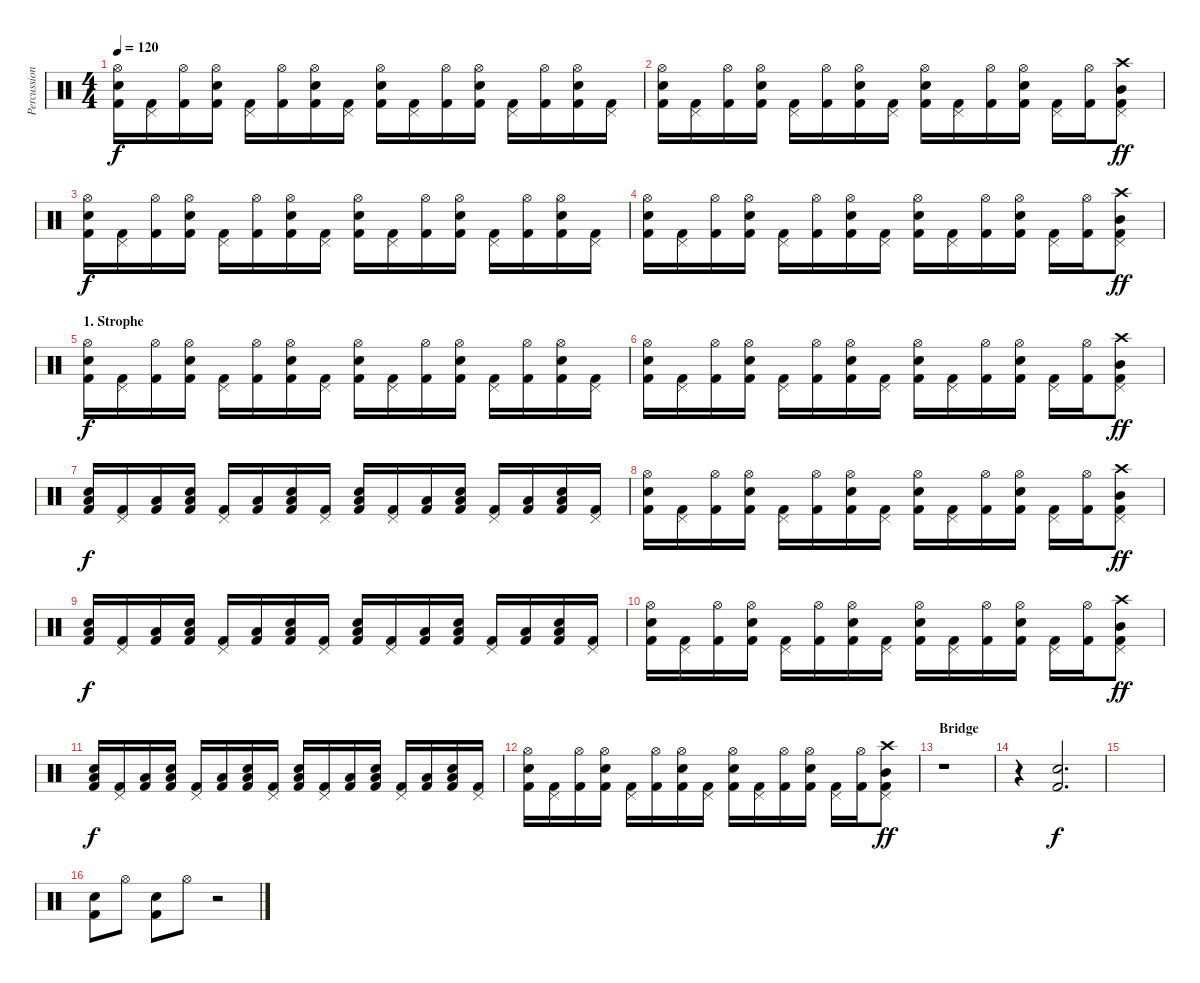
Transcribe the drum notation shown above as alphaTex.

\track ("Percussion" "Percussion") {instrument percussion}
\staff {score}
\articulation defaults
\ts (4 4)
\tempo 120
\clef neutral
\ks c
("Hi-Hat (open)" "Electric Snare (hit)" "Kick (hit) 2").16{dy f} ("Pedal Hi-Hat (hit)" "Kick (hit) 2").16 ("Hi-Hat (open)" "Kick (hit) 2").16 ("Hi-Hat (open)" "Electric Snare (hit)" "Kick (hit) 2").16 ("Pedal Hi-Hat (hit)" "Kick (hit) 2").16 ("Hi-Hat (open)" "Kick (hit) 2").16 ("Hi-Hat (open)" "Electric Snare (hit)" "Kick (hit) 2").16 ("Pedal Hi-Hat (hit)" "Kick (hit) 2").16 ("Hi-Hat (open)" "Electric Snare (hit)" "Kick (hit) 2").16 ("Pedal Hi-Hat (hit)" "Kick (hit) 2").16 ("Hi-Hat (open)" "Kick (hit) 2").16 ("Hi-Hat (open)" "Electric Snare (hit)" "Kick (hit) 2").16 ("Pedal Hi-Hat (hit)" "Kick (hit) 2").16 ("Hi-Hat (open)" "Kick (hit) 2").16 ("Hi-Hat (open)" "Electric Snare (hit)" "Kick (hit) 2").16 ("Pedal Hi-Hat (hit)" "Kick (hit) 2").16 |
("Hi-Hat (open)" "Electric Snare (hit)" "Kick (hit) 2").16 ("Pedal Hi-Hat (hit)" "Kick (hit) 2").16 ("Hi-Hat (open)" "Kick (hit) 2").16 ("Hi-Hat (open)" "Electric Snare (hit)" "Kick (hit) 2").16 ("Pedal Hi-Hat (hit)" "Kick (hit) 2").16 ("Hi-Hat (open)" "Kick (hit) 2").16 ("Hi-Hat (open)" "Electric Snare (hit)" "Kick (hit) 2").16 ("Pedal Hi-Hat (hit)" "Kick (hit) 2").16 ("Hi-Hat (open)" "Electric Snare (hit)" "Kick (hit) 2").16 ("Pedal Hi-Hat (hit)" "Kick (hit) 2").16 ("Hi-Hat (open)" "Kick (hit) 2").16 ("Hi-Hat (open)" "Electric Snare (hit)" "Kick (hit) 2").16 ("Pedal Hi-Hat (hit)" "Kick (hit) 2").16 ("Hi-Hat (open)" "Kick (hit) 2").16 ("Crash high (hit)" "Mid Tom (hit)" "Pedal Hi-Hat (hit)" "Kick (hit) 2").8{dy ff} |
("Hi-Hat (open)" "Electric Snare (hit)" "Kick (hit) 2").16{dy f} ("Pedal Hi-Hat (hit)" "Kick (hit) 2").16 ("Hi-Hat (open)" "Kick (hit) 2").16 ("Hi-Hat (open)" "Electric Snare (hit)" "Kick (hit) 2").16 ("Pedal Hi-Hat (hit)" "Kick (hit) 2").16 ("Hi-Hat (open)" "Kick (hit) 2").16 ("Hi-Hat (open)" "Electric Snare (hit)" "Kick (hit) 2").16 ("Pedal Hi-Hat (hit)" "Kick (hit) 2").16 ("Hi-Hat (open)" "Electric Snare (hit)" "Kick (hit) 2").16 ("Pedal Hi-Hat (hit)" "Kick (hit) 2").16 ("Hi-Hat (open)" "Kick (hit) 2").16 ("Hi-Hat (open)" "Electric Snare (hit)" "Kick (hit) 2").16 ("Pedal Hi-Hat (hit)" "Kick (hit) 2").16 ("Hi-Hat (open)" "Kick (hit) 2").16 ("Hi-Hat (open)" "Electric Snare (hit)" "Kick (hit) 2").16 ("Pedal Hi-Hat (hit)" "Kick (hit) 2").16 |
("Hi-Hat (open)" "Electric Snare (hit)" "Kick (hit) 2").16 ("Pedal Hi-Hat (hit)" "Kick (hit) 2").16 ("Hi-Hat (open)" "Kick (hit) 2").16 ("Hi-Hat (open)" "Electric Snare (hit)" "Kick (hit) 2").16 ("Pedal Hi-Hat (hit)" "Kick (hit) 2").16 ("Hi-Hat (open)" "Kick (hit) 2").16 ("Hi-Hat (open)" "Electric Snare (hit)" "Kick (hit) 2").16 ("Pedal Hi-Hat (hit)" "Kick (hit) 2").16 ("Hi-Hat (open)" "Electric Snare (hit)" "Kick (hit) 2").16 ("Pedal Hi-Hat (hit)" "Kick (hit) 2").16 ("Hi-Hat (open)" "Kick (hit) 2").16 ("Hi-Hat (open)" "Electric Snare (hit)" "Kick (hit) 2").16 ("Pedal Hi-Hat (hit)" "Kick (hit) 2").16 ("Hi-Hat (open)" "Kick (hit) 2").16 ("Crash high (hit)" "Mid Tom (hit)" "Pedal Hi-Hat (hit)" "Kick (hit) 2").8{dy ff} |
\section ("" "1. Strophe")
("Hi-Hat (open)" "Electric Snare (hit)" "Kick (hit) 2").16{dy f} ("Pedal Hi-Hat (hit)" "Kick (hit) 2").16 ("Hi-Hat (open)" "Kick (hit) 2").16 ("Hi-Hat (open)" "Electric Snare (hit)" "Kick (hit) 2").16 ("Pedal Hi-Hat (hit)" "Kick (hit) 2").16 ("Hi-Hat (open)" "Kick (hit) 2").16 ("Hi-Hat (open)" "Electric Snare (hit)" "Kick (hit) 2").16 ("Pedal Hi-Hat (hit)" "Kick (hit) 2").16 ("Hi-Hat (open)" "Electric Snare (hit)" "Kick (hit) 2").16 ("Pedal Hi-Hat (hit)" "Kick (hit) 2").16 ("Hi-Hat (open)" "Kick (hit) 2").16 ("Hi-Hat (open)" "Electric Snare (hit)" "Kick (hit) 2").16 ("Pedal Hi-Hat (hit)" "Kick (hit) 2").16 ("Hi-Hat (open)" "Kick (hit) 2").16 ("Hi-Hat (open)" "Electric Snare (hit)" "Kick (hit) 2").16 ("Pedal Hi-Hat (hit)" "Kick (hit) 2").16 |
("Hi-Hat (open)" "Electric Snare (hit)" "Kick (hit) 2").16 ("Pedal Hi-Hat (hit)" "Kick (hit) 2").16 ("Hi-Hat (open)" "Kick (hit) 2").16 ("Hi-Hat (open)" "Electric Snare (hit)" "Kick (hit) 2").16 ("Pedal Hi-Hat (hit)" "Kick (hit) 2").16 ("Hi-Hat (open)" "Kick (hit) 2").16 ("Hi-Hat (open)" "Electric Snare (hit)" "Kick (hit) 2").16 ("Pedal Hi-Hat (hit)" "Kick (hit) 2").16 ("Hi-Hat (open)" "Electric Snare (hit)" "Kick (hit) 2").16 ("Pedal Hi-Hat (hit)" "Kick (hit) 2").16 ("Hi-Hat (open)" "Kick (hit) 2").16 ("Hi-Hat (open)" "Electric Snare (hit)" "Kick (hit) 2").16 ("Pedal Hi-Hat (hit)" "Kick (hit) 2").16 ("Hi-Hat (open)" "Kick (hit) 2").16 ("Crash high (hit)" "Mid Tom (hit)" "Pedal Hi-Hat (hit)" "Kick (hit) 2").8{dy ff} |
("Low Floor Tom (hit)" "Electric Snare (hit)" "Kick (hit) 2").16{dy f} ("Pedal Hi-Hat (hit)" "Kick (hit) 2").16 ("Low Floor Tom (hit)" "Kick (hit) 2").16 ("Low Floor Tom (hit)" "Electric Snare (hit)" "Kick (hit) 2").16 ("Pedal Hi-Hat (hit)" "Kick (hit) 2").16 ("Low Floor Tom (hit)" "Kick (hit) 2").16 ("Low Floor Tom (hit)" "Electric Snare (hit)" "Kick (hit) 2").16 ("Pedal Hi-Hat (hit)" "Kick (hit) 2").16 ("Low Floor Tom (hit)" "Electric Snare (hit)" "Kick (hit) 2").16 ("Pedal Hi-Hat (hit)" "Kick (hit) 2").16 ("Low Floor Tom (hit)" "Kick (hit) 2").16 ("Low Floor Tom (hit)" "Electric Snare (hit)" "Kick (hit) 2").16 ("Pedal Hi-Hat (hit)" "Kick (hit) 2").16 ("Low Floor Tom (hit)" "Kick (hit) 2").16 ("Low Floor Tom (hit)" "Electric Snare (hit)" "Kick (hit) 2").16 ("Pedal Hi-Hat (hit)" "Kick (hit) 2").16 |
("Hi-Hat (open)" "Electric Snare (hit)" "Kick (hit) 2").16 ("Pedal Hi-Hat (hit)" "Kick (hit) 2").16 ("Hi-Hat (open)" "Kick (hit) 2").16 ("Hi-Hat (open)" "Electric Snare (hit)" "Kick (hit) 2").16 ("Pedal Hi-Hat (hit)" "Kick (hit) 2").16 ("Hi-Hat (open)" "Kick (hit) 2").16 ("Hi-Hat (open)" "Electric Snare (hit)" "Kick (hit) 2").16 ("Pedal Hi-Hat (hit)" "Kick (hit) 2").16 ("Hi-Hat (open)" "Electric Snare (hit)" "Kick (hit) 2").16 ("Pedal Hi-Hat (hit)" "Kick (hit) 2").16 ("Hi-Hat (open)" "Kick (hit) 2").16 ("Hi-Hat (open)" "Electric Snare (hit)" "Kick (hit) 2").16 ("Pedal Hi-Hat (hit)" "Kick (hit) 2").16 ("Hi-Hat (open)" "Kick (hit) 2").16 ("Crash high (hit)" "Mid Tom (hit)" "Pedal Hi-Hat (hit)" "Kick (hit) 2").8{dy ff} |
("Low Floor Tom (hit)" "Electric Snare (hit)" "Kick (hit) 2").16{dy f} ("Pedal Hi-Hat (hit)" "Kick (hit) 2").16 ("Low Floor Tom (hit)" "Kick (hit) 2").16 ("Low Floor Tom (hit)" "Electric Snare (hit)" "Kick (hit) 2").16 ("Pedal Hi-Hat (hit)" "Kick (hit) 2").16 ("Low Floor Tom (hit)" "Kick (hit) 2").16 ("Low Floor Tom (hit)" "Electric Snare (hit)" "Kick (hit) 2").16 ("Pedal Hi-Hat (hit)" "Kick (hit) 2").16 ("Low Floor Tom (hit)" "Electric Snare (hit)" "Kick (hit) 2").16 ("Pedal Hi-Hat (hit)" "Kick (hit) 2").16 ("Low Floor Tom (hit)" "Kick (hit) 2").16 ("Low Floor Tom (hit)" "Electric Snare (hit)" "Kick (hit) 2").16 ("Pedal Hi-Hat (hit)" "Kick (hit) 2").16 ("Low Floor Tom (hit)" "Kick (hit) 2").16 ("Low Floor Tom (hit)" "Electric Snare (hit)" "Kick (hit) 2").16 ("Pedal Hi-Hat (hit)" "Kick (hit) 2").16 |
("Hi-Hat (open)" "Electric Snare (hit)" "Kick (hit) 2").16 ("Pedal Hi-Hat (hit)" "Kick (hit) 2").16 ("Hi-Hat (open)" "Kick (hit) 2").16 ("Hi-Hat (open)" "Electric Snare (hit)" "Kick (hit) 2").16 ("Pedal Hi-Hat (hit)" "Kick (hit) 2").16 ("Hi-Hat (open)" "Kick (hit) 2").16 ("Hi-Hat (open)" "Electric Snare (hit)" "Kick (hit) 2").16 ("Pedal Hi-Hat (hit)" "Kick (hit) 2").16 ("Hi-Hat (open)" "Electric Snare (hit)" "Kick (hit) 2").16 ("Pedal Hi-Hat (hit)" "Kick (hit) 2").16 ("Hi-Hat (open)" "Kick (hit) 2").16 ("Hi-Hat (open)" "Electric Snare (hit)" "Kick (hit) 2").16 ("Pedal Hi-Hat (hit)" "Kick (hit) 2").16 ("Hi-Hat (open)" "Kick (hit) 2").16 ("Crash high (hit)" "Mid Tom (hit)" "Pedal Hi-Hat (hit)" "Kick (hit) 2").8{dy ff} |
("Low Floor Tom (hit)" "Electric Snare (hit)" "Kick (hit) 2").16{dy f} ("Pedal Hi-Hat (hit)" "Kick (hit) 2").16 ("Low Floor Tom (hit)" "Kick (hit) 2").16 ("Low Floor Tom (hit)" "Electric Snare (hit)" "Kick (hit) 2").16 ("Pedal Hi-Hat (hit)" "Kick (hit) 2").16 ("Low Floor Tom (hit)" "Kick (hit) 2").16 ("Low Floor Tom (hit)" "Electric Snare (hit)" "Kick (hit) 2").16 ("Pedal Hi-Hat (hit)" "Kick (hit) 2").16 ("Low Floor Tom (hit)" "Electric Snare (hit)" "Kick (hit) 2").16 ("Pedal Hi-Hat (hit)" "Kick (hit) 2").16 ("Low Floor Tom (hit)" "Kick (hit) 2").16 ("Low Floor Tom (hit)" "Electric Snare (hit)" "Kick (hit) 2").16 ("Pedal Hi-Hat (hit)" "Kick (hit) 2").16 ("Low Floor Tom (hit)" "Kick (hit) 2").16 ("Low Floor Tom (hit)" "Electric Snare (hit)" "Kick (hit) 2").16 ("Pedal Hi-Hat (hit)" "Kick (hit) 2").16 |
("Hi-Hat (open)" "Electric Snare (hit)" "Kick (hit) 2").16 ("Pedal Hi-Hat (hit)" "Kick (hit) 2").16 ("Hi-Hat (open)" "Kick (hit) 2").16 ("Hi-Hat (open)" "Electric Snare (hit)" "Kick (hit) 2").16 ("Pedal Hi-Hat (hit)" "Kick (hit) 2").16 ("Hi-Hat (open)" "Kick (hit) 2").16 ("Hi-Hat (open)" "Electric Snare (hit)" "Kick (hit) 2").16 ("Pedal Hi-Hat (hit)" "Kick (hit) 2").16 ("Hi-Hat (open)" "Electric Snare (hit)" "Kick (hit) 2").16 ("Pedal Hi-Hat (hit)" "Kick (hit) 2").16 ("Hi-Hat (open)" "Kick (hit) 2").16 ("Hi-Hat (open)" "Electric Snare (hit)" "Kick (hit) 2").16 ("Pedal Hi-Hat (hit)" "Kick (hit) 2").16 ("Hi-Hat (open)" "Kick (hit) 2").16 ("Crash high (hit)" "Mid Tom (hit)" "Pedal Hi-Hat (hit)" "Kick (hit) 2").8{dy ff} |
\section ("" "Bridge")
r.1 |
r.4 ("Electric Snare (hit)" "Kick (hit) 2").2{d dy f} |
|
("Electric Snare (hit)" "Kick (hit) 2").8 "Hi-Hat (open)".8 ("Electric Snare (hit)" "Kick (hit) 2").8 "Hi-Hat (open)".8 r.2
